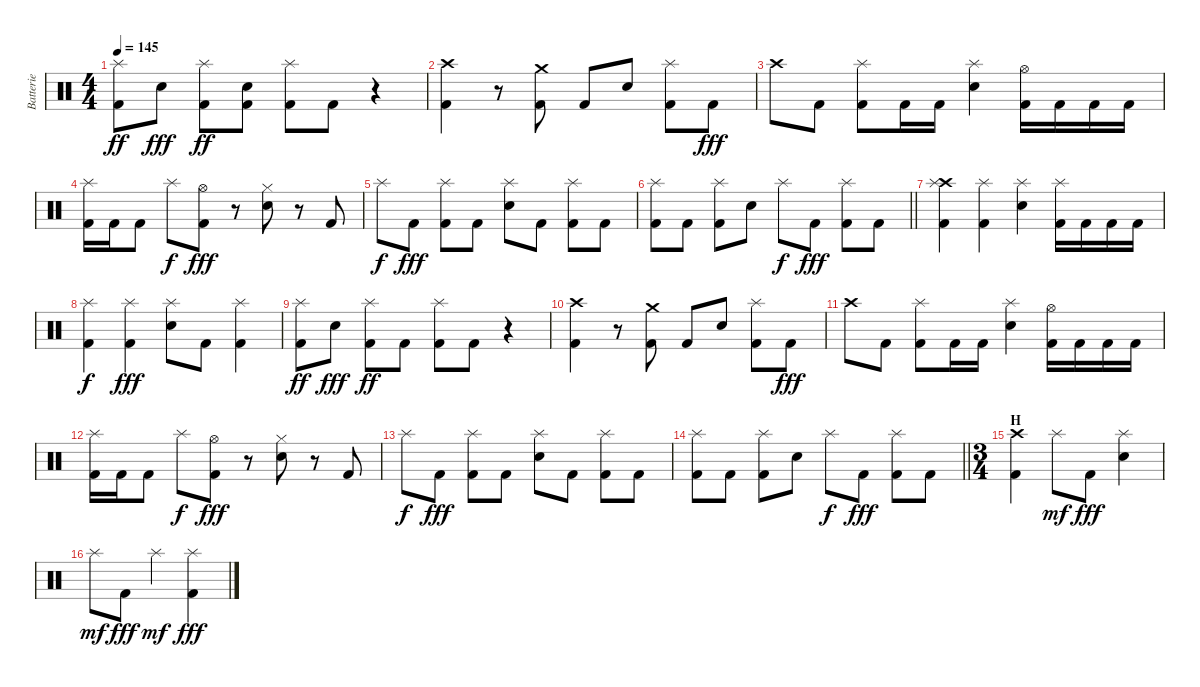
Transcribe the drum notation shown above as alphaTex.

\track ("Batterie" "Batterie") {instrument percussion}
\staff {score}
\articulation defaults
\ts (4 4)
\tempo 145
\clef neutral
\ks c
("Splash (hit)" "Kick (hit) 2").8{dy ff} "Electric Snare (hit)".8{dy fff} ("Splash (hit)" "Kick (hit) 2").8{dy ff} ("Electric Snare (hit)" "Kick (hit) 2").8 ("Splash (hit)" "Kick (hit) 2").8 "Kick (hit) 2".8 r.4 |
("Crash high (hit)" "Kick (hit) 2").4 r.8 ("Crash medium (hit)" "Kick (hit) 2").8 "Kick (hit) 2".8 "Electric Snare (hit)".8 ("Splash (hit)" "Kick (hit) 2").8 "Kick (hit) 2".8{dy fff} |
"Crash high (hit)".8 "Kick (hit) 2".8 ("Splash (hit)" "Kick (hit) 2").8 "Kick (hit) 2".16 "Kick (hit) 2".16 ("Splash (hit)" "Electric Snare (hit)").4 ("Hi-Hat (open)" "Kick (hit) 2").16 "Kick (hit) 2".16 "Kick (hit) 2".16 "Kick (hit) 2".16 |
("Splash (hit)" "Kick (hit) 2").16 "Kick (hit) 2".16 "Kick (hit) 2".8 "Splash (hit)".8{dy f} ("Hi-Hat (open)" "Kick (hit) 2").8{dy fff} r.8 ("Hi-Hat (closed)" "Electric Snare (hit)").8 r.8 "Kick (hit) 2".8 |
"Splash (hit)".8{dy f} "Kick (hit) 2".8{dy fff} ("Splash (hit)" "Kick (hit) 2").8 "Kick (hit) 2".8 ("Splash (hit)" "Electric Snare (hit)").8 "Kick (hit) 2".8 ("Splash (hit)" "Kick (hit) 2").8 "Kick (hit) 2".8 |
\barLineRight lightlight
("Splash (hit)" "Kick (hit) 2").8 "Kick (hit) 2".8 ("Splash (hit)" "Kick (hit) 2").8 "Electric Snare (hit)".8 "Splash (hit)".8{dy f} "Kick (hit) 2".8{dy fff} ("Splash (hit)" "Kick (hit) 2").8 "Kick (hit) 2".8 |
("Crash high (hit)" "Splash (hit)" "Kick (hit) 2").4 ("Splash (hit)" "Kick (hit) 2").4 ("Splash (hit)" "Electric Snare (hit)").4 ("Splash (hit)" "Kick (hit) 2").16 "Kick (hit) 2".16 "Kick (hit) 2".16 "Kick (hit) 2".16 |
("Splash (hit)" "Kick (hit) 2").4{dy f} ("Splash (hit)" "Kick (hit) 2").4{dy fff} ("Splash (hit)" "Electric Snare (hit)").8 "Kick (hit) 2".8 ("Splash (hit)" "Kick (hit) 2").4 |
("Splash (hit)" "Kick (hit) 2").8{dy ff} "Electric Snare (hit)".8{dy fff} ("Splash (hit)" "Kick (hit) 2").8{dy ff} "Kick (hit) 2".8 ("Splash (hit)" "Kick (hit) 2").8 "Kick (hit) 2".8 r.4 |
("Crash high (hit)" "Kick (hit) 2").4 r.8 ("Crash medium (hit)" "Kick (hit) 2").8 "Kick (hit) 2".8 "Electric Snare (hit)".8 ("Splash (hit)" "Kick (hit) 2").8 "Kick (hit) 2".8{dy fff} |
"Crash high (hit)".8 "Kick (hit) 2".8 ("Splash (hit)" "Kick (hit) 2").8 "Kick (hit) 2".16 "Kick (hit) 2".16 ("Splash (hit)" "Electric Snare (hit)").4 ("Hi-Hat (open)" "Kick (hit) 2").16 "Kick (hit) 2".16 "Kick (hit) 2".16 "Kick (hit) 2".16 |
("Splash (hit)" "Kick (hit) 2").16 "Kick (hit) 2".16 "Kick (hit) 2".8 "Splash (hit)".8{dy f} ("Hi-Hat (open)" "Kick (hit) 2").8{dy fff} r.8 ("Hi-Hat (closed)" "Electric Snare (hit)").8 r.8 "Kick (hit) 2".8 |
"Splash (hit)".8{dy f} "Kick (hit) 2".8{dy fff} ("Splash (hit)" "Kick (hit) 2").8 "Kick (hit) 2".8 ("Splash (hit)" "Electric Snare (hit)").8 "Kick (hit) 2".8 ("Splash (hit)" "Kick (hit) 2").8 "Kick (hit) 2".8 |
\barLineRight lightlight
("Splash (hit)" "Kick (hit) 2").8 "Kick (hit) 2".8 ("Splash (hit)" "Kick (hit) 2").8 "Electric Snare (hit)".8 "Splash (hit)".8{dy f} "Kick (hit) 2".8{dy fff} ("Splash (hit)" "Kick (hit) 2").8 "Kick (hit) 2".8 |
\ts (3 4)
\section ("" "H")
("Crash high (hit)" "Kick (hit) 2").4 "Splash (hit)".8{dy mf} "Kick (hit) 2".8{dy fff} ("Splash (hit)" "Electric Snare (hit)").4 |
"Splash (hit)".8{dy mf} "Kick (hit) 2".8{dy fff} "Splash (hit)".4{dy mf} ("Splash (hit)" "Kick (hit) 2").4{dy fff}
